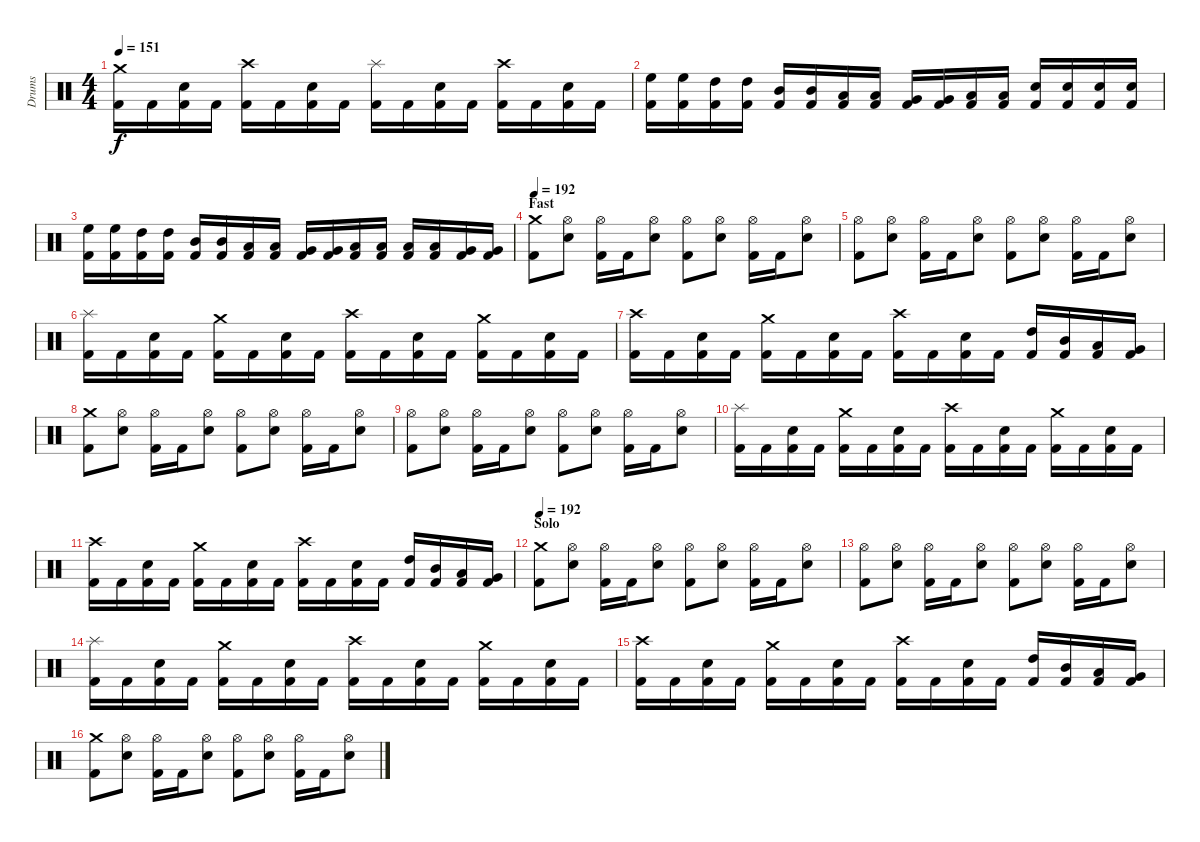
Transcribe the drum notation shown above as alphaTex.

\track ("Drums" "Drums") {instrument percussion}
\staff {score}
\articulation defaults
\ts (4 4)
\tempo 151
\clef neutral
\ks c
("Kick (hit) 2" "Crash medium (hit)").16{dy f} "Kick (hit) 2".16 ("Kick (hit) 2" "Snare (hit) 2").16 "Kick (hit) 2".16 ("Kick (hit) 2" "Crash high (hit)").16 "Kick (hit) 2".16 ("Kick (hit) 2" "Snare (hit) 2").16 "Kick (hit) 2".16 ("Kick (hit) 2" "Splash (hit)").16 "Kick (hit) 2".16 ("Kick (hit) 2" "Snare (hit) 2").16 "Kick (hit) 2".16 ("Kick (hit) 2" "Crash high (hit)").16 "Kick (hit) 2".16 ("Kick (hit) 2" "Snare (hit) 2").16 "Kick (hit) 2".16 |
("Kick (hit) 2" "High Floor Tom (hit)").16 ("Kick (hit) 2" "High Floor Tom (hit)").16 ("Kick (hit) 2" "High Tom (hit)").16 ("Kick (hit) 2" "High Tom (hit)").16 ("Kick (hit) 2" "Mid Tom (hit)").16 ("Kick (hit) 2" "Mid Tom (hit)").16 ("Kick (hit) 2" "Low Tom (hit)").16 ("Kick (hit) 2" "Low Tom (hit)").16 ("Kick (hit) 2" "Very Low Tom (hit)").16 ("Kick (hit) 2" "Very Low Tom (hit)").16 ("Kick (hit) 2" "Low Floor Tom (hit)").16 ("Kick (hit) 2" "Low Floor Tom (hit)").16 ("Kick (hit) 2" "Snare (hit) 2").16 ("Kick (hit) 2" "Snare (hit) 2").16 ("Kick (hit) 2" "Snare (hit) 2").16 ("Kick (hit) 2" "Snare (hit) 2").16 |
("Kick (hit) 2" "High Floor Tom (hit)").16 ("Kick (hit) 2" "High Floor Tom (hit)").16 ("Kick (hit) 2" "High Tom (hit)").16 ("Kick (hit) 2" "High Tom (hit)").16 ("Kick (hit) 2" "Mid Tom (hit)").16 ("Kick (hit) 2" "Mid Tom (hit)").16 ("Kick (hit) 2" "Low Tom (hit)").16 ("Kick (hit) 2" "Low Tom (hit)").16 ("Kick (hit) 2" "Very Low Tom (hit)").16 ("Kick (hit) 2" "Very Low Tom (hit)").16 ("Kick (hit) 2" "Low Floor Tom (hit)").16 ("Kick (hit) 2" "Low Floor Tom (hit)").16 ("Kick (hit) 2" "Low Tom (hit)").16 ("Kick (hit) 2" "Low Tom (hit)").16 ("Kick (hit) 2" "Very Low Tom (hit)").16 ("Kick (hit) 2" "Very Low Tom (hit)").16 |
\section ("" "Fast")
\tempo 192
("Kick (hit) 2" "Crash medium (hit)").8 ("Snare (hit) 2" "Hi-Hat (open)").8 ("Kick (hit) 2" "Hi-Hat (open)").16 "Kick (hit) 2".16 ("Snare (hit) 2" "Hi-Hat (open)").8 ("Kick (hit) 2" "Hi-Hat (open)").8 ("Snare (hit) 2" "Hi-Hat (open)").8 ("Kick (hit) 2" "Hi-Hat (open)").16 "Kick (hit) 2".16 ("Snare (hit) 2" "Hi-Hat (open)").8 |
("Kick (hit) 2" "Hi-Hat (open)").8 ("Snare (hit) 2" "Hi-Hat (open)").8 ("Kick (hit) 2" "Hi-Hat (open)").16 "Kick (hit) 2".16 ("Snare (hit) 2" "Hi-Hat (open)").8 ("Kick (hit) 2" "Hi-Hat (open)").8 ("Snare (hit) 2" "Hi-Hat (open)").8 ("Kick (hit) 2" "Hi-Hat (open)").16 "Kick (hit) 2".16 ("Snare (hit) 2" "Hi-Hat (open)").8 |
("Kick (hit) 2" "Splash (hit)").16 "Kick (hit) 2".16 ("Kick (hit) 2" "Snare (hit) 2").16 "Kick (hit) 2".16 ("Kick (hit) 2" "Crash medium (hit)").16 "Kick (hit) 2".16 ("Kick (hit) 2" "Snare (hit) 2").16 "Kick (hit) 2".16 ("Kick (hit) 2" "Crash high (hit)").16 "Kick (hit) 2".16 ("Kick (hit) 2" "Snare (hit) 2").16 "Kick (hit) 2".16 ("Kick (hit) 2" "Crash medium (hit)").16 "Kick (hit) 2".16 ("Kick (hit) 2" "Snare (hit) 2").16 "Kick (hit) 2".16 |
("Kick (hit) 2" "Crash high (hit)").16 "Kick (hit) 2".16 ("Kick (hit) 2" "Snare (hit) 2").16 "Kick (hit) 2".16 ("Kick (hit) 2" "Crash medium (hit)").16 "Kick (hit) 2".16 ("Kick (hit) 2" "Snare (hit) 2").16 "Kick (hit) 2".16 ("Kick (hit) 2" "Crash high (hit)").16 "Kick (hit) 2".16 ("Kick (hit) 2" "Snare (hit) 2").16 "Kick (hit) 2".16 ("Kick (hit) 2" "High Tom (hit)").16 ("Kick (hit) 2" "Mid Tom (hit)").16 ("Kick (hit) 2" "Low Tom (hit)").16 ("Kick (hit) 2" "Very Low Tom (hit)").16 |
("Kick (hit) 2" "Crash medium (hit)").8 ("Snare (hit) 2" "Hi-Hat (open)").8 ("Kick (hit) 2" "Hi-Hat (open)").16 "Kick (hit) 2".16 ("Snare (hit) 2" "Hi-Hat (open)").8 ("Kick (hit) 2" "Hi-Hat (open)").8 ("Snare (hit) 2" "Hi-Hat (open)").8 ("Kick (hit) 2" "Hi-Hat (open)").16 "Kick (hit) 2".16 ("Snare (hit) 2" "Hi-Hat (open)").8 |
("Kick (hit) 2" "Hi-Hat (open)").8 ("Snare (hit) 2" "Hi-Hat (open)").8 ("Kick (hit) 2" "Hi-Hat (open)").16 "Kick (hit) 2".16 ("Snare (hit) 2" "Hi-Hat (open)").8 ("Kick (hit) 2" "Hi-Hat (open)").8 ("Snare (hit) 2" "Hi-Hat (open)").8 ("Kick (hit) 2" "Hi-Hat (open)").16 "Kick (hit) 2".16 ("Snare (hit) 2" "Hi-Hat (open)").8 |
("Kick (hit) 2" "Splash (hit)").16 "Kick (hit) 2".16 ("Kick (hit) 2" "Snare (hit) 2").16 "Kick (hit) 2".16 ("Kick (hit) 2" "Crash medium (hit)").16 "Kick (hit) 2".16 ("Kick (hit) 2" "Snare (hit) 2").16 "Kick (hit) 2".16 ("Kick (hit) 2" "Crash high (hit)").16 "Kick (hit) 2".16 ("Kick (hit) 2" "Snare (hit) 2").16 "Kick (hit) 2".16 ("Kick (hit) 2" "Crash medium (hit)").16 "Kick (hit) 2".16 ("Kick (hit) 2" "Snare (hit) 2").16 "Kick (hit) 2".16 |
("Kick (hit) 2" "Crash high (hit)").16 "Kick (hit) 2".16 ("Kick (hit) 2" "Snare (hit) 2").16 "Kick (hit) 2".16 ("Kick (hit) 2" "Crash medium (hit)").16 "Kick (hit) 2".16 ("Kick (hit) 2" "Snare (hit) 2").16 "Kick (hit) 2".16 ("Kick (hit) 2" "Crash high (hit)").16 "Kick (hit) 2".16 ("Kick (hit) 2" "Snare (hit) 2").16 "Kick (hit) 2".16 ("Kick (hit) 2" "High Tom (hit)").16 ("Kick (hit) 2" "Mid Tom (hit)").16 ("Kick (hit) 2" "Low Tom (hit)").16 ("Kick (hit) 2" "Very Low Tom (hit)").16 |
\section ("" "Solo")
\tempo 192
("Kick (hit) 2" "Crash medium (hit)").8 ("Snare (hit) 2" "Hi-Hat (open)").8 ("Kick (hit) 2" "Hi-Hat (open)").16 "Kick (hit) 2".16 ("Snare (hit) 2" "Hi-Hat (open)").8 ("Kick (hit) 2" "Hi-Hat (open)").8 ("Snare (hit) 2" "Hi-Hat (open)").8 ("Kick (hit) 2" "Hi-Hat (open)").16 "Kick (hit) 2".16 ("Snare (hit) 2" "Hi-Hat (open)").8 |
("Kick (hit) 2" "Hi-Hat (open)").8 ("Snare (hit) 2" "Hi-Hat (open)").8 ("Kick (hit) 2" "Hi-Hat (open)").16 "Kick (hit) 2".16 ("Snare (hit) 2" "Hi-Hat (open)").8 ("Kick (hit) 2" "Hi-Hat (open)").8 ("Snare (hit) 2" "Hi-Hat (open)").8 ("Kick (hit) 2" "Hi-Hat (open)").16 "Kick (hit) 2".16 ("Snare (hit) 2" "Hi-Hat (open)").8 |
("Kick (hit) 2" "Splash (hit)").16 "Kick (hit) 2".16 ("Kick (hit) 2" "Snare (hit) 2").16 "Kick (hit) 2".16 ("Kick (hit) 2" "Crash medium (hit)").16 "Kick (hit) 2".16 ("Kick (hit) 2" "Snare (hit) 2").16 "Kick (hit) 2".16 ("Kick (hit) 2" "Crash high (hit)").16 "Kick (hit) 2".16 ("Kick (hit) 2" "Snare (hit) 2").16 "Kick (hit) 2".16 ("Kick (hit) 2" "Crash medium (hit)").16 "Kick (hit) 2".16 ("Kick (hit) 2" "Snare (hit) 2").16 "Kick (hit) 2".16 |
("Kick (hit) 2" "Crash high (hit)").16 "Kick (hit) 2".16 ("Kick (hit) 2" "Snare (hit) 2").16 "Kick (hit) 2".16 ("Kick (hit) 2" "Crash medium (hit)").16 "Kick (hit) 2".16 ("Kick (hit) 2" "Snare (hit) 2").16 "Kick (hit) 2".16 ("Kick (hit) 2" "Crash high (hit)").16 "Kick (hit) 2".16 ("Kick (hit) 2" "Snare (hit) 2").16 "Kick (hit) 2".16 ("Kick (hit) 2" "High Tom (hit)").16 ("Kick (hit) 2" "Mid Tom (hit)").16 ("Kick (hit) 2" "Low Tom (hit)").16 ("Kick (hit) 2" "Very Low Tom (hit)").16 |
("Kick (hit) 2" "Crash medium (hit)").8 ("Snare (hit) 2" "Hi-Hat (open)").8 ("Kick (hit) 2" "Hi-Hat (open)").16 "Kick (hit) 2".16 ("Snare (hit) 2" "Hi-Hat (open)").8 ("Kick (hit) 2" "Hi-Hat (open)").8 ("Snare (hit) 2" "Hi-Hat (open)").8 ("Kick (hit) 2" "Hi-Hat (open)").16 "Kick (hit) 2".16 ("Snare (hit) 2" "Hi-Hat (open)").8
